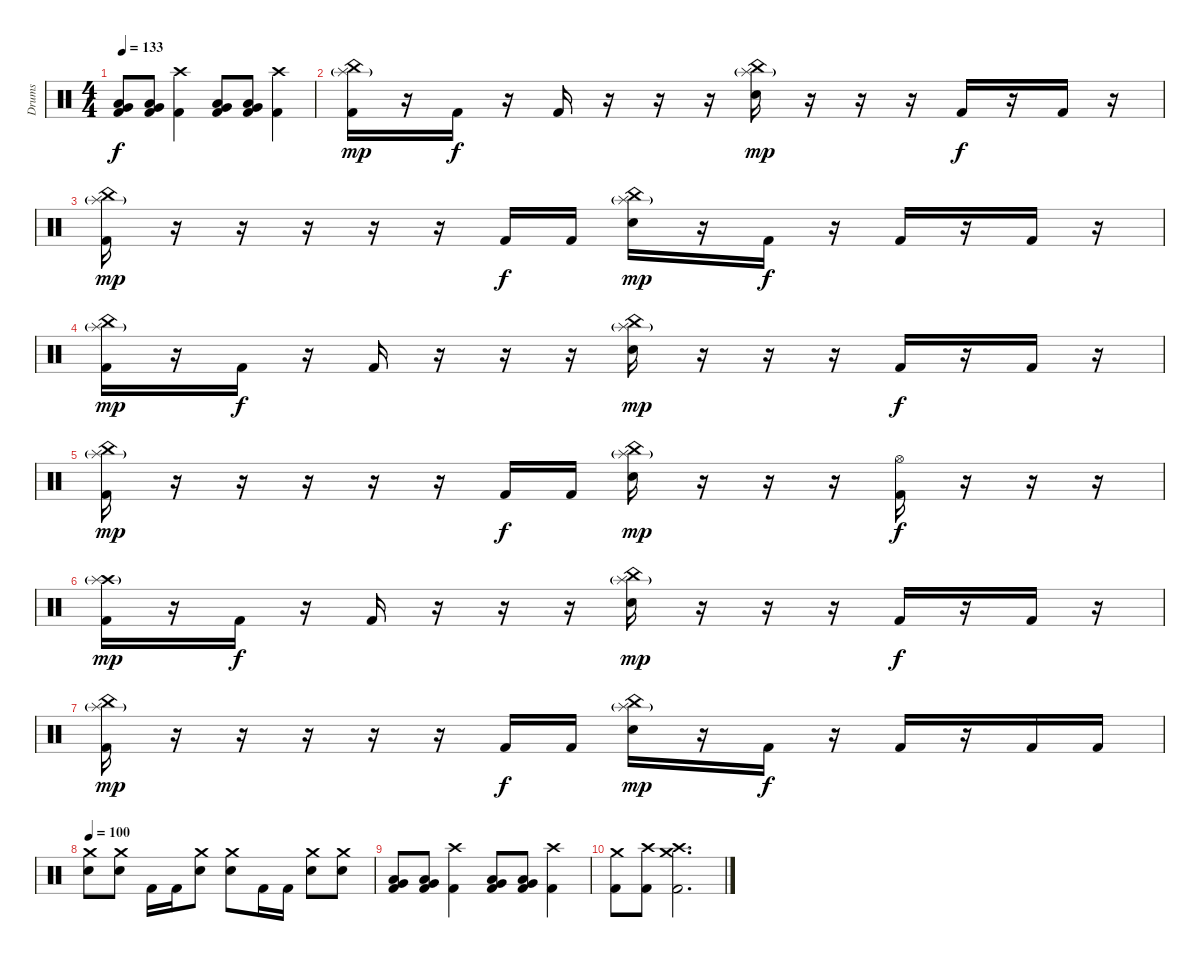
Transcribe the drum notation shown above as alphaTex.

\track ("Drums" "Drums") {instrument percussion}
\staff {score}
\articulation defaults
\ts (4 4)
\tempo 133
\clef neutral
\ks c
("Low Floor Tom (hit)" "Very Low Tom (hit)" "Kick (hit) 2").8{dy f} ("Low Floor Tom (hit)" "Very Low Tom (hit)" "Kick (hit) 2").8 ("Crash high (hit)" "Kick (hit) 2").4 ("Low Floor Tom (hit)" "Very Low Tom (hit)" "Kick (hit) 2").8 ("Low Floor Tom (hit)" "Very Low Tom (hit)" "Kick (hit) 2").8 ("Crash high (hit)" "Kick (hit) 2").4 |
("China (hit)" "Splash (hit)"{g} "Kick (hit) 2").16{dy mp} r.16 "Kick (hit) 2".16{dy f} r.16 "Kick (hit) 2".16 r.16 r.16 r.16 ("China (hit)" "Splash (hit)"{g} "Electric Snare (hit)").16{dy mp} r.16 r.16 r.16 "Kick (hit) 2".16{dy f} r.16 "Kick (hit) 2".16 r.16 |
("China (hit)" "Splash (hit)"{g} "Kick (hit) 2").16{dy mp} r.16 r.16 r.16 r.16 r.16 "Kick (hit) 2".16{dy f} "Kick (hit) 2".16 ("China (hit)" "Splash (hit)"{g} "Electric Snare (hit)").16{dy mp} r.16 "Kick (hit) 2".16{dy f} r.16 "Kick (hit) 2".16 r.16 "Kick (hit) 2".16 r.16 |
("China (hit)" "Splash (hit)"{g} "Kick (hit) 2").16{dy mp} r.16 "Kick (hit) 2".16{dy f} r.16 "Kick (hit) 2".16 r.16 r.16 r.16 ("China (hit)" "Splash (hit)"{g} "Electric Snare (hit)").16{dy mp} r.16 r.16 r.16 "Kick (hit) 2".16{dy f} r.16 "Kick (hit) 2".16 r.16 |
("China (hit)" "Splash (hit)"{g} "Kick (hit) 2").16{dy mp} r.16 r.16 r.16 r.16 r.16 "Kick (hit) 2".16{dy f} "Kick (hit) 2".16 ("China (hit)" "Splash (hit)"{g} "Electric Snare (hit)").16{dy mp} r.16 r.16 r.16 ("Hi-Hat (open)" "Kick (hit) 2").16{dy f} r.16 r.16{volume 0} r.16 |
("Crash high (hit)" "Splash (hit)"{g} "Kick (hit) 2").16{dy mp volume 14} r.16 "Kick (hit) 2".16{dy f} r.16 "Kick (hit) 2".16 r.16 r.16 r.16 ("China (hit)" "Splash (hit)"{g} "Electric Snare (hit)").16{dy mp} r.16 r.16 r.16 "Kick (hit) 2".16{dy f} r.16 "Kick (hit) 2".16 r.16 |
("China (hit)" "Splash (hit)"{g} "Kick (hit) 2").16{dy mp} r.16 r.16 r.16 r.16 r.16 "Kick (hit) 2".16{dy f} "Kick (hit) 2".16 ("China (hit)" "Splash (hit)"{g} "Electric Snare (hit)").16{dy mp} r.16 "Kick (hit) 2".16{dy f} r.16 "Kick (hit) 2".16 r.16 "Kick (hit) 2".16 "Kick (hit) 2".16 |
\tempo 100
("Crash medium (hit)" "Electric Snare (hit)").8 ("Crash medium (hit)" "Electric Snare (hit)").8 "Kick (hit) 2".16 "Kick (hit) 2".16 ("Crash medium (hit)" "Electric Snare (hit)").8 ("Crash medium (hit)" "Electric Snare (hit)").8 "Kick (hit) 2".16 "Kick (hit) 2".16 ("Crash medium (hit)" "Electric Snare (hit)").8 ("Crash medium (hit)" "Electric Snare (hit)").8 |
("Low Floor Tom (hit)" "Very Low Tom (hit)" "Kick (hit) 2").8 ("Low Floor Tom (hit)" "Very Low Tom (hit)" "Kick (hit) 2").8 ("Crash high (hit)" "Kick (hit) 2").4 ("Low Floor Tom (hit)" "Very Low Tom (hit)" "Kick (hit) 2").8 ("Low Floor Tom (hit)" "Very Low Tom (hit)" "Kick (hit) 2").8 ("Crash high (hit)" "Kick (hit) 2").4 |
("Crash medium (hit)" "Kick (hit) 2").8 ("Crash high (hit)" "Kick (hit) 2").8 ("Crash medium (hit)" "Crash high (hit)" "Kick (hit) 2").2{d}
